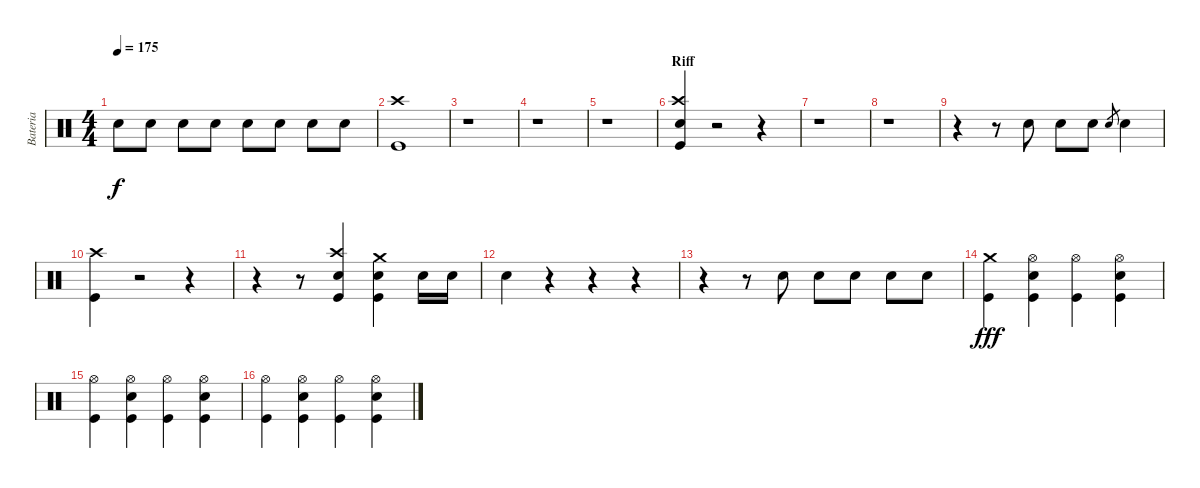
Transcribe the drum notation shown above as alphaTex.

\track ("Bateria" "Bateria") {instrument percussion}
\staff {score}
\articulation defaults
\ts (4 4)
\tempo 175
\clef neutral
\ks c "Electric Snare (hit)".8{dy f} "Electric Snare (hit)".8 "Electric Snare (hit)".8 "Electric Snare (hit)".8 "Electric Snare (hit)".8 "Electric Snare (hit)".8 "Electric Snare (hit)".8 "Electric Snare (hit)".8
|
("Crash high (hit)" "Kick (hit)").1 |
r.1 |
r.1 |
r.1 |
\section ("" "Riff")
("Crash high (hit)" "Electric Snare (hit)" "Kick (hit)").4 r.2 r.4 |
r.1 |
r.1 |
r.4 r.8 "Electric Snare (hit)".8 "Electric Snare (hit)".8 "Electric Snare (hit)".8 "Electric Snare (hit)".8{gr} "Electric Snare (hit)".4 |
("Crash high (hit)" "Kick (hit)").4 r.2 r.4 |
r.4 r.8 ("Crash high (hit)" "Electric Snare (hit)" "Kick (hit)").4 ("Crash medium (hit)" "Electric Snare (hit)" "Kick (hit)").4 "Electric Snare (hit)".16 "Electric Snare (hit)".16 |
"Electric Snare (hit)".4 r.4 r.4 r.4 |
r.4 r.8 "Electric Snare (hit)".8 "Electric Snare (hit)".8 "Electric Snare (hit)".8 "Electric Snare (hit)".8 "Electric Snare (hit)".8 |
("Crash medium (hit)" "Kick (hit)").4{dy fff} ("Hi-Hat (open)" "Electric Snare (hit)" "Kick (hit)").4 ("Hi-Hat (open)" "Kick (hit)").4 ("Hi-Hat (open)" "Electric Snare (hit)" "Kick (hit)").4 |
("Hi-Hat (open)" "Kick (hit)").4 ("Hi-Hat (open)" "Electric Snare (hit)" "Kick (hit)").4 ("Hi-Hat (open)" "Kick (hit)").4 ("Hi-Hat (open)" "Electric Snare (hit)" "Kick (hit)").4 |
("Hi-Hat (open)" "Kick (hit)").4 ("Hi-Hat (open)" "Electric Snare (hit)" "Kick (hit)").4 ("Hi-Hat (open)" "Kick (hit)").4 ("Hi-Hat (open)" "Electric Snare (hit)" "Kick (hit)").4
